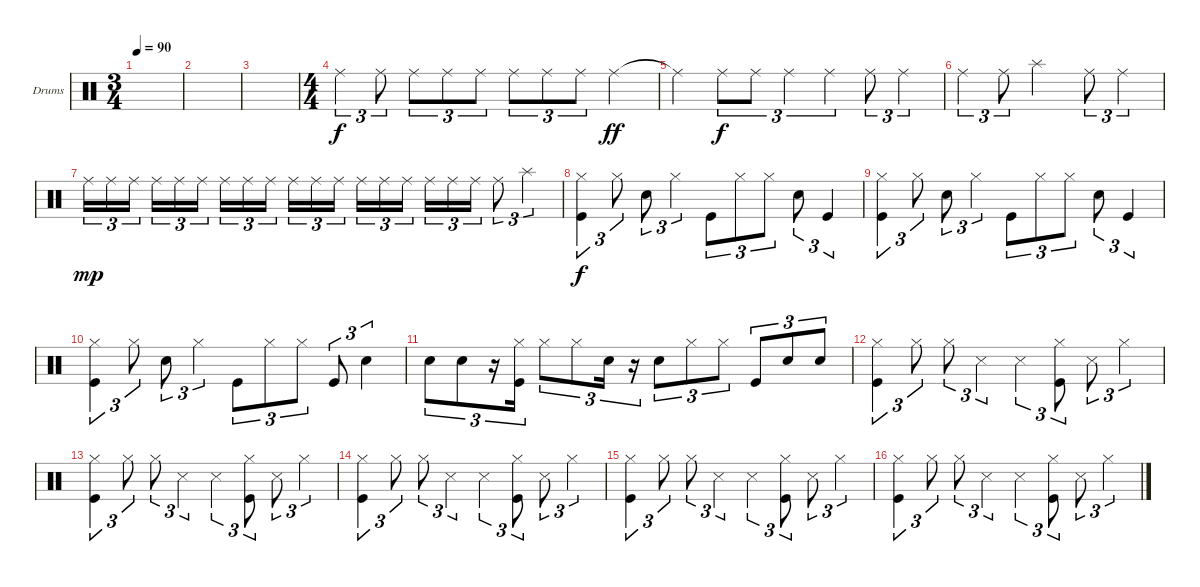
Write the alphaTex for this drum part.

\defaultSystemsLayout 4
\bracketExtendMode groupsimilarinstruments
\firstSystemTrackNameOrientation horizontal
\otherSystemsTrackNameOrientation horizontal
\track ("Drumkit" "Drums") {instrument percussion}
\staff {score}
\articulation defaults
\ts (3 4)
\tempo 90
\clef neutral
\ks c
|
|
|
\ts (4 4)
"Ride (middle)".4{tu (3 2)} "Ride (middle)".8{tu (3 2)} "Ride (middle)".8{tu (3 2)} "Ride (middle)".8{tu (3 2)} "Ride (middle)".8{tu (3 2)} "Ride (middle)".8{tu (3 2) dy f} "Ride (middle)".8{tu (3 2)} "Ride (middle)".8{tu (3 2)} "Ride (middle)".4{dy ff} |
"Ride (middle)"{t}.4 "Ride (middle)".8{tu (3 2) dy f} "Ride (middle)".8{tu (3 2)} "Ride (middle)".4{tu (3 2)} "Ride (middle)".4{tu (3 2)} "Ride (middle)".8{tu (3 2)} "Ride (middle)".4{tu (3 2)} |
"Ride (middle)".4{tu (3 2)} "Ride (middle)".8{tu (3 2)} "Splash (hit)".2 "Ride (middle)".8{tu (3 2)} "Ride (middle)".4{tu (3 2)} |
"Ride (middle)".16{tu (3 2) dy mp} "Ride (middle)".16{tu (3 2)} "Ride (middle)".16{tu (3 2)} "Ride (middle)".16{tu (3 2)} "Ride (middle)".16{tu (3 2)} "Ride (middle)".16{tu (3 2)} "Ride (middle)".16{tu (3 2)} "Ride (middle)".16{tu (3 2)} "Ride (middle)".16{tu (3 2)} "Ride (middle)".16{tu (3 2)} "Ride (middle)".16{tu (3 2)} "Ride (middle)".16{tu (3 2)} "Ride (middle)".16{tu (3 2)} "Ride (middle)".16{tu (3 2)} "Ride (middle)".16{tu (3 2)} "Ride (middle)".16{tu (3 2)} "Ride (middle)".16{tu (3 2)} "Ride (middle)".16{tu (3 2)} "Ride (middle)".8{tu (3 2)} "Splash (hit)".4{tu (3 2)} |
("Hi-Hat (closed)" "Kick (hit)").4{tu (3 2) dy f} "Hi-Hat (closed)".8{tu (3 2)} "Snare (hit) 2".8{tu (3 2)} "Hi-Hat (closed)".4{tu (3 2)} "Kick (hit)".8{tu (3 2)} "Hi-Hat (closed)".8{tu (3 2)} "Hi-Hat (closed)".8{tu (3 2)} "Snare (hit) 2".8{tu (3 2)} "Kick (hit)".4{tu (3 2)} |
("Hi-Hat (closed)" "Kick (hit)").4{tu (3 2)} "Hi-Hat (closed)".8{tu (3 2)} "Snare (hit) 2".8{tu (3 2)} "Hi-Hat (closed)".4{tu (3 2)} "Kick (hit)".8{tu (3 2)} "Hi-Hat (closed)".8{tu (3 2)} "Hi-Hat (closed)".8{tu (3 2)} "Snare (hit) 2".8{tu (3 2)} "Kick (hit)".4{tu (3 2)} |
("Hi-Hat (closed)" "Kick (hit)").4{tu (3 2)} "Hi-Hat (closed)".8{tu (3 2)} "Snare (hit) 2".8{tu (3 2)} "Hi-Hat (closed)".4{tu (3 2)} "Kick (hit)".8{tu (3 2)} "Hi-Hat (closed)".8{tu (3 2)} "Hi-Hat (closed)".8{tu (3 2)} "Kick (hit)".8{tu (3 2)} "Snare (hit) 2".4{tu (3 2)} |
"Snare (hit) 2".8{tu (3 2)} "Snare (hit) 2".8{tu (3 2)} r.16{tu (3 2)} ("Hi-Hat (closed)" "Kick (hit)").16{tu (3 2)} "Hi-Hat (closed)".8{tu (3 2)} "Hi-Hat (closed)".8{tu (3 2)} "Snare (hit) 2".16{tu (3 2)} r.16{tu (3 2)} "Snare (hit) 2".8{tu (3 2)} "Hi-Hat (closed)".8{tu (3 2)} "Hi-Hat (closed)".8{tu (3 2)} "Kick (hit)".8{tu (3 2)} "Snare (hit) 2".8{tu (3 2)} "Snare (hit) 2".8{tu (3 2)} |
("Hi-Hat (closed)" "Kick (hit)").4{tu (3 2)} "Hi-Hat (closed)".8{tu (3 2)} "Hi-Hat (closed)".8{tu (3 2)} "Snare (side stick) 3".4{tu (3 2)} "Snare (side stick) 3".4{tu (3 2)} ("Kick (hit)" "Hi-Hat (closed)").8{tu (3 2)} "Snare (side stick) 3".8{tu (3 2)} "Hi-Hat (closed)".4{tu (3 2)} |
("Hi-Hat (closed)" "Kick (hit)").4{tu (3 2)} "Hi-Hat (closed)".8{tu (3 2)} "Hi-Hat (closed)".8{tu (3 2)} "Snare (side stick) 3".4{tu (3 2)} "Snare (side stick) 3".4{tu (3 2)} ("Kick (hit)" "Hi-Hat (closed)").8{tu (3 2)} "Snare (side stick) 3".8{tu (3 2)} "Hi-Hat (closed)".4{tu (3 2)} |
("Hi-Hat (closed)" "Kick (hit)").4{tu (3 2)} "Hi-Hat (closed)".8{tu (3 2)} "Hi-Hat (closed)".8{tu (3 2)} "Snare (side stick) 3".4{tu (3 2)} "Snare (side stick) 3".4{tu (3 2)} ("Kick (hit)" "Hi-Hat (closed)").8{tu (3 2)} "Snare (side stick) 3".8{tu (3 2)} "Hi-Hat (closed)".4{tu (3 2)} |
("Hi-Hat (closed)" "Kick (hit)").4{tu (3 2)} "Hi-Hat (closed)".8{tu (3 2)} "Hi-Hat (closed)".8{tu (3 2)} "Snare (side stick) 3".4{tu (3 2)} "Snare (side stick) 3".4{tu (3 2)} ("Kick (hit)" "Hi-Hat (closed)").8{tu (3 2)} "Snare (side stick) 3".8{tu (3 2)} "Hi-Hat (closed)".4{tu (3 2)} |
("Hi-Hat (closed)" "Kick (hit)").4{tu (3 2)} "Hi-Hat (closed)".8{tu (3 2)} "Hi-Hat (closed)".8{tu (3 2)} "Snare (side stick) 3".4{tu (3 2)} "Snare (side stick) 3".4{tu (3 2)} ("Kick (hit)" "Hi-Hat (closed)").8{tu (3 2)} "Snare (side stick) 3".8{tu (3 2)} "Hi-Hat (closed)".4{tu (3 2)}
